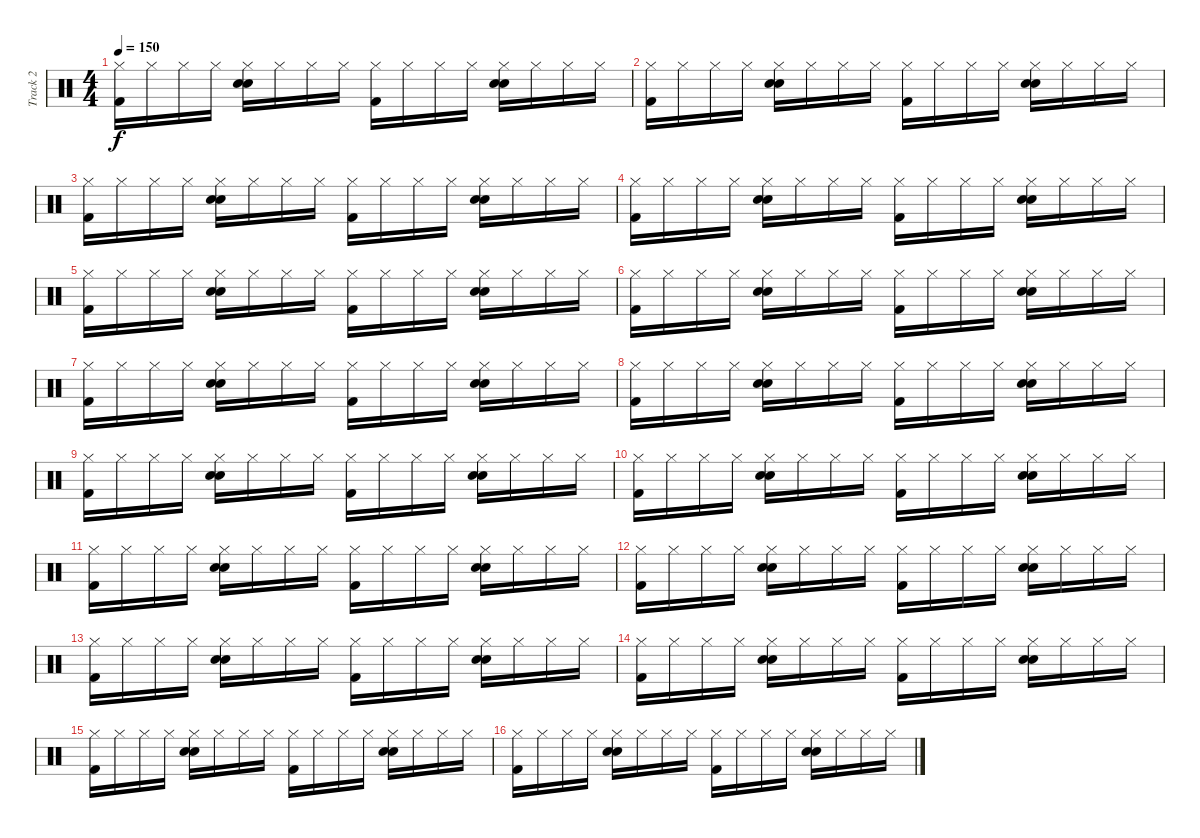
\track ("Track 2" "Track 2") {instrument percussion}
\staff {score}
\articulation defaults
\ts (4 4)
\tempo 150
\clef neutral
\ks c
("Hi-Hat (closed)" "Kick (hit) 2").16{dy f} "Hi-Hat (closed)".16 "Hi-Hat (closed)".16 "Hi-Hat (closed)".16 ("Hi-Hat (closed)" "Hand Clap (hit)" "Electric Snare (hit)").16 "Hi-Hat (closed)".16 "Hi-Hat (closed)".16 "Hi-Hat (closed)".16 ("Hi-Hat (closed)" "Kick (hit) 2").16 "Hi-Hat (closed)".16 "Hi-Hat (closed)".16 "Hi-Hat (closed)".16 ("Hi-Hat (closed)" "Electric Snare (hit)" "Hand Clap (hit)").16 "Hi-Hat (closed)".16 "Hi-Hat (closed)".16 "Hi-Hat (closed)".16 |
("Hi-Hat (closed)" "Kick (hit) 2").16 "Hi-Hat (closed)".16 "Hi-Hat (closed)".16 "Hi-Hat (closed)".16 ("Hi-Hat (closed)" "Hand Clap (hit)" "Electric Snare (hit)").16 "Hi-Hat (closed)".16 "Hi-Hat (closed)".16 "Hi-Hat (closed)".16 ("Hi-Hat (closed)" "Kick (hit) 2").16 "Hi-Hat (closed)".16 "Hi-Hat (closed)".16 "Hi-Hat (closed)".16 ("Hi-Hat (closed)" "Electric Snare (hit)" "Hand Clap (hit)").16 "Hi-Hat (closed)".16 "Hi-Hat (closed)".16 "Hi-Hat (closed)".16 |
("Hi-Hat (closed)" "Kick (hit) 2").16 "Hi-Hat (closed)".16 "Hi-Hat (closed)".16 "Hi-Hat (closed)".16 ("Hi-Hat (closed)" "Hand Clap (hit)" "Electric Snare (hit)").16 "Hi-Hat (closed)".16 "Hi-Hat (closed)".16 "Hi-Hat (closed)".16 ("Hi-Hat (closed)" "Kick (hit) 2").16 "Hi-Hat (closed)".16 "Hi-Hat (closed)".16 "Hi-Hat (closed)".16 ("Hi-Hat (closed)" "Electric Snare (hit)" "Hand Clap (hit)").16 "Hi-Hat (closed)".16 "Hi-Hat (closed)".16 "Hi-Hat (closed)".16 |
("Hi-Hat (closed)" "Kick (hit) 2").16 "Hi-Hat (closed)".16 "Hi-Hat (closed)".16 "Hi-Hat (closed)".16 ("Hi-Hat (closed)" "Hand Clap (hit)" "Electric Snare (hit)").16 "Hi-Hat (closed)".16 "Hi-Hat (closed)".16 "Hi-Hat (closed)".16 ("Hi-Hat (closed)" "Kick (hit) 2").16 "Hi-Hat (closed)".16 "Hi-Hat (closed)".16 "Hi-Hat (closed)".16 ("Hi-Hat (closed)" "Electric Snare (hit)" "Hand Clap (hit)").16 "Hi-Hat (closed)".16 "Hi-Hat (closed)".16 "Hi-Hat (closed)".16 |
("Hi-Hat (closed)" "Kick (hit) 2").16 "Hi-Hat (closed)".16 "Hi-Hat (closed)".16 "Hi-Hat (closed)".16 ("Hi-Hat (closed)" "Hand Clap (hit)" "Electric Snare (hit)").16 "Hi-Hat (closed)".16 "Hi-Hat (closed)".16 "Hi-Hat (closed)".16 ("Hi-Hat (closed)" "Kick (hit) 2").16 "Hi-Hat (closed)".16 "Hi-Hat (closed)".16 "Hi-Hat (closed)".16 ("Hi-Hat (closed)" "Electric Snare (hit)" "Hand Clap (hit)").16 "Hi-Hat (closed)".16 "Hi-Hat (closed)".16 "Hi-Hat (closed)".16 |
("Hi-Hat (closed)" "Kick (hit) 2").16 "Hi-Hat (closed)".16 "Hi-Hat (closed)".16 "Hi-Hat (closed)".16 ("Hi-Hat (closed)" "Hand Clap (hit)" "Electric Snare (hit)").16 "Hi-Hat (closed)".16 "Hi-Hat (closed)".16 "Hi-Hat (closed)".16 ("Hi-Hat (closed)" "Kick (hit) 2").16 "Hi-Hat (closed)".16 "Hi-Hat (closed)".16 "Hi-Hat (closed)".16 ("Hi-Hat (closed)" "Electric Snare (hit)" "Hand Clap (hit)").16 "Hi-Hat (closed)".16 "Hi-Hat (closed)".16 "Hi-Hat (closed)".16 |
("Hi-Hat (closed)" "Kick (hit) 2").16 "Hi-Hat (closed)".16 "Hi-Hat (closed)".16 "Hi-Hat (closed)".16 ("Hi-Hat (closed)" "Hand Clap (hit)" "Electric Snare (hit)").16 "Hi-Hat (closed)".16 "Hi-Hat (closed)".16 "Hi-Hat (closed)".16 ("Hi-Hat (closed)" "Kick (hit) 2").16 "Hi-Hat (closed)".16 "Hi-Hat (closed)".16 "Hi-Hat (closed)".16 ("Hi-Hat (closed)" "Electric Snare (hit)" "Hand Clap (hit)").16 "Hi-Hat (closed)".16 "Hi-Hat (closed)".16 "Hi-Hat (closed)".16 |
("Hi-Hat (closed)" "Kick (hit) 2").16 "Hi-Hat (closed)".16 "Hi-Hat (closed)".16 "Hi-Hat (closed)".16 ("Hi-Hat (closed)" "Hand Clap (hit)" "Electric Snare (hit)").16 "Hi-Hat (closed)".16 "Hi-Hat (closed)".16 "Hi-Hat (closed)".16 ("Hi-Hat (closed)" "Kick (hit) 2").16 "Hi-Hat (closed)".16 "Hi-Hat (closed)".16 "Hi-Hat (closed)".16 ("Hi-Hat (closed)" "Electric Snare (hit)" "Hand Clap (hit)").16 "Hi-Hat (closed)".16 "Hi-Hat (closed)".16 "Hi-Hat (closed)".16 |
("Hi-Hat (closed)" "Kick (hit) 2").16 "Hi-Hat (closed)".16 "Hi-Hat (closed)".16 "Hi-Hat (closed)".16 ("Hi-Hat (closed)" "Hand Clap (hit)" "Electric Snare (hit)").16 "Hi-Hat (closed)".16 "Hi-Hat (closed)".16 "Hi-Hat (closed)".16 ("Hi-Hat (closed)" "Kick (hit) 2").16 "Hi-Hat (closed)".16 "Hi-Hat (closed)".16 "Hi-Hat (closed)".16 ("Hi-Hat (closed)" "Electric Snare (hit)" "Hand Clap (hit)").16 "Hi-Hat (closed)".16 "Hi-Hat (closed)".16 "Hi-Hat (closed)".16 |
("Hi-Hat (closed)" "Kick (hit) 2").16 "Hi-Hat (closed)".16 "Hi-Hat (closed)".16 "Hi-Hat (closed)".16 ("Hi-Hat (closed)" "Hand Clap (hit)" "Electric Snare (hit)").16 "Hi-Hat (closed)".16 "Hi-Hat (closed)".16 "Hi-Hat (closed)".16 ("Hi-Hat (closed)" "Kick (hit) 2").16 "Hi-Hat (closed)".16 "Hi-Hat (closed)".16 "Hi-Hat (closed)".16 ("Hi-Hat (closed)" "Electric Snare (hit)" "Hand Clap (hit)").16 "Hi-Hat (closed)".16 "Hi-Hat (closed)".16 "Hi-Hat (closed)".16 |
("Hi-Hat (closed)" "Kick (hit) 2").16 "Hi-Hat (closed)".16 "Hi-Hat (closed)".16 "Hi-Hat (closed)".16 ("Hi-Hat (closed)" "Hand Clap (hit)" "Electric Snare (hit)").16 "Hi-Hat (closed)".16 "Hi-Hat (closed)".16 "Hi-Hat (closed)".16 ("Hi-Hat (closed)" "Kick (hit) 2").16 "Hi-Hat (closed)".16 "Hi-Hat (closed)".16 "Hi-Hat (closed)".16 ("Hi-Hat (closed)" "Electric Snare (hit)" "Hand Clap (hit)").16 "Hi-Hat (closed)".16 "Hi-Hat (closed)".16 "Hi-Hat (closed)".16 |
("Hi-Hat (closed)" "Kick (hit) 2").16 "Hi-Hat (closed)".16 "Hi-Hat (closed)".16 "Hi-Hat (closed)".16 ("Hi-Hat (closed)" "Hand Clap (hit)" "Electric Snare (hit)").16 "Hi-Hat (closed)".16 "Hi-Hat (closed)".16 "Hi-Hat (closed)".16 ("Hi-Hat (closed)" "Kick (hit) 2").16 "Hi-Hat (closed)".16 "Hi-Hat (closed)".16 "Hi-Hat (closed)".16 ("Hi-Hat (closed)" "Electric Snare (hit)" "Hand Clap (hit)").16 "Hi-Hat (closed)".16 "Hi-Hat (closed)".16 "Hi-Hat (closed)".16 |
("Hi-Hat (closed)" "Kick (hit) 2").16 "Hi-Hat (closed)".16 "Hi-Hat (closed)".16 "Hi-Hat (closed)".16 ("Hi-Hat (closed)" "Hand Clap (hit)" "Electric Snare (hit)").16 "Hi-Hat (closed)".16 "Hi-Hat (closed)".16 "Hi-Hat (closed)".16 ("Hi-Hat (closed)" "Kick (hit) 2").16 "Hi-Hat (closed)".16 "Hi-Hat (closed)".16 "Hi-Hat (closed)".16 ("Hi-Hat (closed)" "Electric Snare (hit)" "Hand Clap (hit)").16 "Hi-Hat (closed)".16 "Hi-Hat (closed)".16 "Hi-Hat (closed)".16 |
("Hi-Hat (closed)" "Kick (hit) 2").16 "Hi-Hat (closed)".16 "Hi-Hat (closed)".16 "Hi-Hat (closed)".16 ("Hi-Hat (closed)" "Hand Clap (hit)" "Electric Snare (hit)").16 "Hi-Hat (closed)".16 "Hi-Hat (closed)".16 "Hi-Hat (closed)".16 ("Hi-Hat (closed)" "Kick (hit) 2").16 "Hi-Hat (closed)".16 "Hi-Hat (closed)".16 "Hi-Hat (closed)".16 ("Hi-Hat (closed)" "Electric Snare (hit)" "Hand Clap (hit)").16 "Hi-Hat (closed)".16 "Hi-Hat (closed)".16 "Hi-Hat (closed)".16 |
("Hi-Hat (closed)" "Kick (hit) 2").16 "Hi-Hat (closed)".16 "Hi-Hat (closed)".16 "Hi-Hat (closed)".16 ("Hi-Hat (closed)" "Hand Clap (hit)" "Electric Snare (hit)").16 "Hi-Hat (closed)".16 "Hi-Hat (closed)".16 "Hi-Hat (closed)".16 ("Hi-Hat (closed)" "Kick (hit) 2").16 "Hi-Hat (closed)".16 "Hi-Hat (closed)".16 "Hi-Hat (closed)".16 ("Hi-Hat (closed)" "Electric Snare (hit)" "Hand Clap (hit)").16 "Hi-Hat (closed)".16 "Hi-Hat (closed)".16 "Hi-Hat (closed)".16 |
("Hi-Hat (closed)" "Kick (hit) 2").16 "Hi-Hat (closed)".16 "Hi-Hat (closed)".16 "Hi-Hat (closed)".16 ("Hi-Hat (closed)" "Hand Clap (hit)" "Electric Snare (hit)").16 "Hi-Hat (closed)".16 "Hi-Hat (closed)".16 "Hi-Hat (closed)".16 ("Hi-Hat (closed)" "Kick (hit) 2").16 "Hi-Hat (closed)".16 "Hi-Hat (closed)".16 "Hi-Hat (closed)".16 ("Hi-Hat (closed)" "Electric Snare (hit)" "Hand Clap (hit)").16 "Hi-Hat (closed)".16 "Hi-Hat (closed)".16 "Hi-Hat (closed)".16
